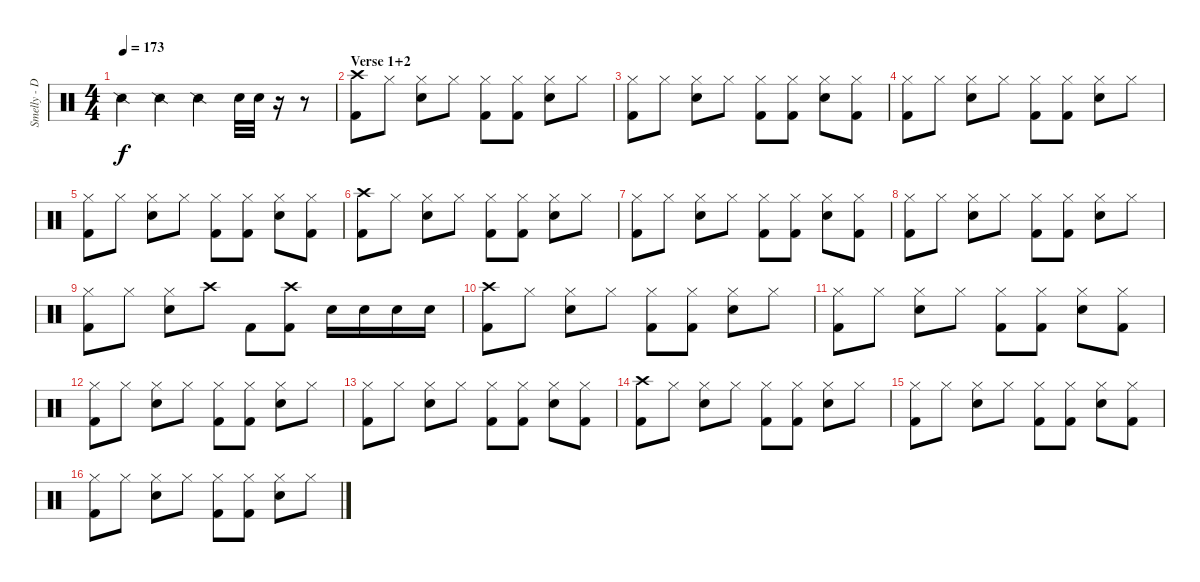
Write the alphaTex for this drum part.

\track ("Smelly - Drums" "Smelly - D") {instrument percussion}
\staff {score}
\articulation defaults
\ts (4 4)
\tempo 173
\clef neutral
\ks c "Snare (side stick) 2".4{dy f} "Snare (side stick) 2".4 "Snare (side stick) 2".4 "Snare (hit) 2".32 "Snare (hit) 2".32
r.16 r.8 |
\section ("" "Verse 1+2")
("Crash high (hit)" "Kick (hit) 2").8 "Hi-Hat (closed)".8 ("Hi-Hat (closed)" "Snare (hit) 2").8 "Hi-Hat (closed)".8 ("Hi-Hat (closed)" "Kick (hit) 2").8 ("Hi-Hat (closed)" "Kick (hit) 2").8 ("Hi-Hat (closed)" "Snare (hit) 2").8 "Hi-Hat (closed)".8 |
("Hi-Hat (closed)" "Kick (hit) 2").8 "Hi-Hat (closed)".8 ("Hi-Hat (closed)" "Snare (hit) 2").8 "Hi-Hat (closed)".8 ("Hi-Hat (closed)" "Kick (hit) 2").8 ("Hi-Hat (closed)" "Kick (hit) 2").8 ("Hi-Hat (closed)" "Snare (hit) 2").8 ("Hi-Hat (closed)" "Kick (hit) 2").8 |
("Hi-Hat (closed)" "Kick (hit) 2").8 "Hi-Hat (closed)".8 ("Hi-Hat (closed)" "Snare (hit) 2").8 "Hi-Hat (closed)".8 ("Hi-Hat (closed)" "Kick (hit) 2").8 ("Hi-Hat (closed)" "Kick (hit) 2").8 ("Hi-Hat (closed)" "Snare (hit) 2").8 "Hi-Hat (closed)".8 |
("Hi-Hat (closed)" "Kick (hit) 2").8 "Hi-Hat (closed)".8 ("Hi-Hat (closed)" "Snare (hit) 2").8 "Hi-Hat (closed)".8 ("Hi-Hat (closed)" "Kick (hit) 2").8 ("Hi-Hat (closed)" "Kick (hit) 2").8 ("Hi-Hat (closed)" "Snare (hit) 2").8 ("Hi-Hat (closed)" "Kick (hit) 2").8 |
("Crash high (hit)" "Kick (hit) 2").8 "Hi-Hat (closed)".8 ("Hi-Hat (closed)" "Snare (hit) 2").8 "Hi-Hat (closed)".8 ("Hi-Hat (closed)" "Kick (hit) 2").8 ("Hi-Hat (closed)" "Kick (hit) 2").8 ("Hi-Hat (closed)" "Snare (hit) 2").8 "Hi-Hat (closed)".8 |
("Hi-Hat (closed)" "Kick (hit) 2").8 "Hi-Hat (closed)".8 ("Hi-Hat (closed)" "Snare (hit) 2").8 "Hi-Hat (closed)".8 ("Hi-Hat (closed)" "Kick (hit) 2").8 ("Hi-Hat (closed)" "Kick (hit) 2").8 ("Hi-Hat (closed)" "Snare (hit) 2").8 ("Hi-Hat (closed)" "Kick (hit) 2").8 |
("Hi-Hat (closed)" "Kick (hit) 2").8 "Hi-Hat (closed)".8 ("Hi-Hat (closed)" "Snare (hit) 2").8 "Hi-Hat (closed)".8 ("Hi-Hat (closed)" "Kick (hit) 2").8 ("Hi-Hat (closed)" "Kick (hit) 2").8 ("Hi-Hat (closed)" "Snare (hit) 2").8 "Hi-Hat (closed)".8 |
("Hi-Hat (closed)" "Kick (hit) 2").8 "Hi-Hat (closed)".8 ("Hi-Hat (closed)" "Snare (hit) 2").8 "Crash high (hit)".8 "Kick (hit) 2".8 ("Crash high (hit)" "Kick (hit) 2").8 "Snare (hit) 2".16 "Snare (hit) 2".16 "Snare (hit) 2".16 "Snare (hit) 2".16 |
("Crash high (hit)" "Kick (hit) 2").8 "Hi-Hat (closed)".8 ("Hi-Hat (closed)" "Snare (hit) 2").8 "Hi-Hat (closed)".8 ("Hi-Hat (closed)" "Kick (hit) 2").8 ("Hi-Hat (closed)" "Kick (hit) 2").8 ("Hi-Hat (closed)" "Snare (hit) 2").8 "Hi-Hat (closed)".8 |
("Hi-Hat (closed)" "Kick (hit) 2").8 "Hi-Hat (closed)".8 ("Hi-Hat (closed)" "Snare (hit) 2").8 "Hi-Hat (closed)".8 ("Hi-Hat (closed)" "Kick (hit) 2").8 ("Hi-Hat (closed)" "Kick (hit) 2").8 ("Hi-Hat (closed)" "Snare (hit) 2").8 ("Hi-Hat (closed)" "Kick (hit) 2").8 |
("Hi-Hat (closed)" "Kick (hit) 2").8 "Hi-Hat (closed)".8 ("Hi-Hat (closed)" "Snare (hit) 2").8 "Hi-Hat (closed)".8 ("Hi-Hat (closed)" "Kick (hit) 2").8 ("Hi-Hat (closed)" "Kick (hit) 2").8 ("Hi-Hat (closed)" "Snare (hit) 2").8 "Hi-Hat (closed)".8 |
("Hi-Hat (closed)" "Kick (hit) 2").8 "Hi-Hat (closed)".8 ("Hi-Hat (closed)" "Snare (hit) 2").8 "Hi-Hat (closed)".8 ("Hi-Hat (closed)" "Kick (hit) 2").8 ("Hi-Hat (closed)" "Kick (hit) 2").8 ("Hi-Hat (closed)" "Snare (hit) 2").8 ("Hi-Hat (closed)" "Kick (hit) 2").8 |
("Crash high (hit)" "Kick (hit) 2").8 "Hi-Hat (closed)".8 ("Hi-Hat (closed)" "Snare (hit) 2").8 "Hi-Hat (closed)".8 ("Hi-Hat (closed)" "Kick (hit) 2").8 ("Hi-Hat (closed)" "Kick (hit) 2").8 ("Hi-Hat (closed)" "Snare (hit) 2").8 "Hi-Hat (closed)".8 |
("Hi-Hat (closed)" "Kick (hit) 2").8 "Hi-Hat (closed)".8 ("Hi-Hat (closed)" "Snare (hit) 2").8 "Hi-Hat (closed)".8 ("Hi-Hat (closed)" "Kick (hit) 2").8 ("Hi-Hat (closed)" "Kick (hit) 2").8 ("Hi-Hat (closed)" "Snare (hit) 2").8 ("Hi-Hat (closed)" "Kick (hit) 2").8 |
("Hi-Hat (closed)" "Kick (hit) 2").8 "Hi-Hat (closed)".8 ("Hi-Hat (closed)" "Snare (hit) 2").8 "Hi-Hat (closed)".8 ("Hi-Hat (closed)" "Kick (hit) 2").8 ("Hi-Hat (closed)" "Kick (hit) 2").8 ("Hi-Hat (closed)" "Snare (hit) 2").8 "Hi-Hat (closed)".8
